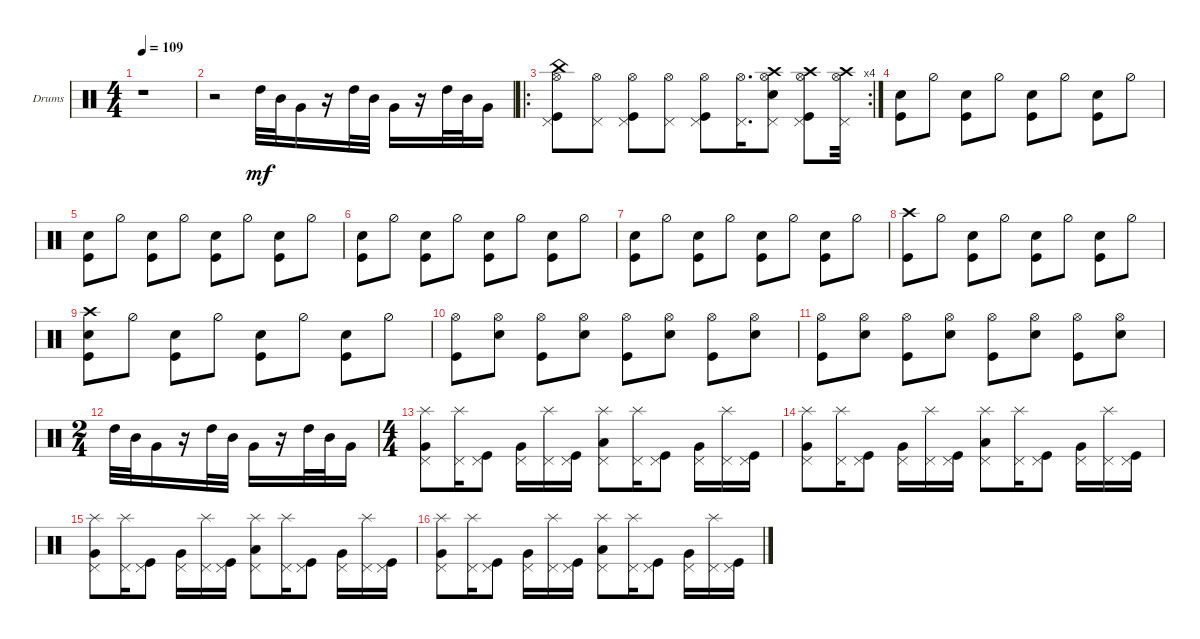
\defaultSystemsLayout 4
\bracketExtendMode groupsimilarinstruments
\firstSystemTrackNameOrientation horizontal
\otherSystemsTrackNameOrientation horizontal
\track ("Drumkit" "Drums") {instrument percussion}
\staff {score}
\articulation defaults
\ts (4 4)
\tempo 109
\clef neutral
\scale
0.263889
\ks c
r.1{dy mf} |
\scale
0.263889 r.2 "High Tom (hit)".32 "Mid Tom (hit)".32 "Very Low Tom (hit)".16 r.16 "High Tom (hit)".32 "Mid Tom (hit)".32 "Very Low Tom (hit)".16 r.16 "High Tom (hit)".32 "Mid Tom (hit)".32 "Very Low Tom (hit)".16 |
\ro
\rc 4
\scale
0.396825 ("Kick (hit)" "Pedal Hi-Hat (hit)" "Hi-Hat (open)" "China (hit)").8 ("Pedal Hi-Hat (hit)" "Hi-Hat (open)").8 ("Kick (hit)" "Pedal Hi-Hat (hit)" "Hi-Hat (open)").8 ("Pedal Hi-Hat (hit)" "Hi-Hat (open)").8 ("Kick (hit)" "Pedal Hi-Hat (hit)" "Hi-Hat (open)").8 ("Pedal Hi-Hat (hit)" "Hi-Hat (open)").16{d} ("Pedal Hi-Hat (hit)" "Snare (hit) 2" "Hi-Hat (open)" "Crash high (hit)").8 ("Kick (hit)" "Pedal Hi-Hat (hit)" "Hi-Hat (open)" "Crash high (hit)").8 ("Pedal Hi-Hat (hit)" "Hi-Hat (open)" "Crash high (hit)").32 |
\scale
0.301587 ("Kick (hit)" "Snare (hit) 2").8 "Hi-Hat (half)".8 ("Kick (hit)" "Snare (hit) 2").8 "Hi-Hat (half)".8 ("Kick (hit)" "Snare (hit) 2").8 "Hi-Hat (half)".8 ("Kick (hit)" "Snare (hit) 2").8 "Hi-Hat (half)".8 |
\scale
0.301587 ("Kick (hit)" "Snare (hit) 2").8 "Hi-Hat (half)".8 ("Kick (hit)" "Snare (hit) 2").8 "Hi-Hat (half)".8 ("Kick (hit)" "Snare (hit) 2").8 "Hi-Hat (half)".8 ("Kick (hit)" "Snare (hit) 2").8 "Hi-Hat (half)".8 |
\scale
0.333333 ("Kick (hit)" "Snare (hit) 2").8 "Hi-Hat (half)".8 ("Kick (hit)" "Snare (hit) 2").8 "Hi-Hat (half)".8 ("Kick (hit)" "Snare (hit) 2").8 "Hi-Hat (half)".8 ("Kick (hit)" "Snare (hit) 2").8 "Hi-Hat (half)".8 |
\scale
0.333333 ("Kick (hit)" "Snare (hit) 2").8 "Hi-Hat (half)".8 ("Kick (hit)" "Snare (hit) 2").8 "Hi-Hat (half)".8 ("Kick (hit)" "Snare (hit) 2").8 "Hi-Hat (half)".8 ("Kick (hit)" "Snare (hit) 2").8 "Hi-Hat (half)".8 |
\scale
0.333333 ("Kick (hit)" "Crash high (hit)").8 "Hi-Hat (half)".8 ("Kick (hit)" "Snare (hit) 2").8 "Hi-Hat (half)".8 ("Kick (hit)" "Snare (hit) 2").8 "Hi-Hat (half)".8 ("Kick (hit)" "Snare (hit) 2").8 "Hi-Hat (half)".8 |
\scale
0.333333 ("Kick (hit)" "Snare (hit) 2" "Crash high (hit)").8 "Hi-Hat (half)".8 ("Kick (hit)" "Snare (hit) 2").8 "Hi-Hat (half)".8 ("Kick (hit)" "Snare (hit) 2").8 "Hi-Hat (half)".8 ("Kick (hit)" "Snare (hit) 2").8 "Hi-Hat (half)".8 |
\scale
0.333333 ("Kick (hit)" "Hi-Hat (open)").8 ("Snare (hit) 2" "Hi-Hat (open)").8 ("Kick (hit)" "Hi-Hat (open)").8 ("Snare (hit) 2" "Hi-Hat (open)").8 ("Kick (hit)" "Hi-Hat (open)").8 ("Snare (hit) 2" "Hi-Hat (open)").8 ("Kick (hit)" "Hi-Hat (open)").8 ("Snare (hit) 2" "Hi-Hat (open)").8 |
\scale
0.333333 ("Kick (hit)" "Hi-Hat (open)").8 ("Snare (hit) 2" "Hi-Hat (open)").8 ("Kick (hit)" "Hi-Hat (open)").8 ("Snare (hit) 2" "Hi-Hat (open)").8 ("Kick (hit)" "Hi-Hat (open)").8 ("Snare (hit) 2" "Hi-Hat (open)").8 ("Kick (hit)" "Hi-Hat (open)").8 ("Snare (hit) 2" "Hi-Hat (open)").8 |
\ts (2 4)
\scale
0.390805 "High Tom (hit)".32 "Mid Tom (hit)".32 "Very Low Tom (hit)".16 r.16 "High Tom (hit)".32 "Mid Tom (hit)".32 "Very Low Tom (hit)".16 r.16 "High Tom (hit)".32 "Mid Tom (hit)".32 "Very Low Tom (hit)".16 |
\ts (4 4)
\scale
0.390805 ("Splash (hit)" "Pedal Hi-Hat (hit)" "Very Low Tom (hit)").8 ("Splash (hit)" "Pedal Hi-Hat (hit)").16 ("Kick (hit)" "Pedal Hi-Hat (hit)").8 ("Very Low Tom (hit)" "Pedal Hi-Hat (hit)").16 ("Splash (hit)" "Pedal Hi-Hat (hit)").16 ("Kick (hit)" "Pedal Hi-Hat (hit)").16 ("Low Tom (hit)" "Splash (hit)" "Pedal Hi-Hat (hit)").8 ("Splash (hit)" "Pedal Hi-Hat (hit)").16 ("Kick (hit)" "Pedal Hi-Hat (hit)").8 ("Very Low Tom (hit)" "Pedal Hi-Hat (hit)").16 ("Pedal Hi-Hat (hit)" "Splash (hit)").16 ("Kick (hit)" "Pedal Hi-Hat (hit)").16 |
\scale
0.218391 ("Splash (hit)" "Pedal Hi-Hat (hit)" "Very Low Tom (hit)").8 ("Splash (hit)" "Pedal Hi-Hat (hit)").16 ("Kick (hit)" "Pedal Hi-Hat (hit)").8 ("Very Low Tom (hit)" "Pedal Hi-Hat (hit)").16 ("Splash (hit)" "Pedal Hi-Hat (hit)").16 ("Kick (hit)" "Pedal Hi-Hat (hit)").16 ("Low Tom (hit)" "Splash (hit)" "Pedal Hi-Hat (hit)").8 ("Splash (hit)" "Pedal Hi-Hat (hit)").16 ("Kick (hit)" "Pedal Hi-Hat (hit)").8 ("Very Low Tom (hit)" "Pedal Hi-Hat (hit)").16 ("Splash (hit)" "Pedal Hi-Hat (hit)").16 ("Kick (hit)" "Pedal Hi-Hat (hit)").16 |
\scale
0.333333 ("Splash (hit)" "Pedal Hi-Hat (hit)" "Very Low Tom (hit)").8 ("Splash (hit)" "Pedal Hi-Hat (hit)").16 ("Kick (hit)" "Pedal Hi-Hat (hit)").8 ("Very Low Tom (hit)" "Pedal Hi-Hat (hit)").16 ("Splash (hit)" "Pedal Hi-Hat (hit)").16 ("Kick (hit)" "Pedal Hi-Hat (hit)").16 ("Low Tom (hit)" "Splash (hit)" "Pedal Hi-Hat (hit)").8 ("Splash (hit)" "Pedal Hi-Hat (hit)").16 ("Kick (hit)" "Pedal Hi-Hat (hit)").8 ("Very Low Tom (hit)" "Pedal Hi-Hat (hit)").16 ("Splash (hit)" "Pedal Hi-Hat (hit)").16 ("Kick (hit)" "Pedal Hi-Hat (hit)").16 |
\scale
0.333333 ("Splash (hit)" "Pedal Hi-Hat (hit)" "Very Low Tom (hit)").8 ("Splash (hit)" "Pedal Hi-Hat (hit)").16 ("Kick (hit)" "Pedal Hi-Hat (hit)").8 ("Very Low Tom (hit)" "Pedal Hi-Hat (hit)").16 ("Splash (hit)" "Pedal Hi-Hat (hit)").16 ("Kick (hit)" "Pedal Hi-Hat (hit)").16 ("Low Tom (hit)" "Splash (hit)" "Pedal Hi-Hat (hit)").8 ("Splash (hit)" "Pedal Hi-Hat (hit)").16 ("Kick (hit)" "Pedal Hi-Hat (hit)").8 ("Very Low Tom (hit)" "Pedal Hi-Hat (hit)").16 ("Splash (hit)" "Pedal Hi-Hat (hit)").16 ("Kick (hit)" "Pedal Hi-Hat (hit)").16
